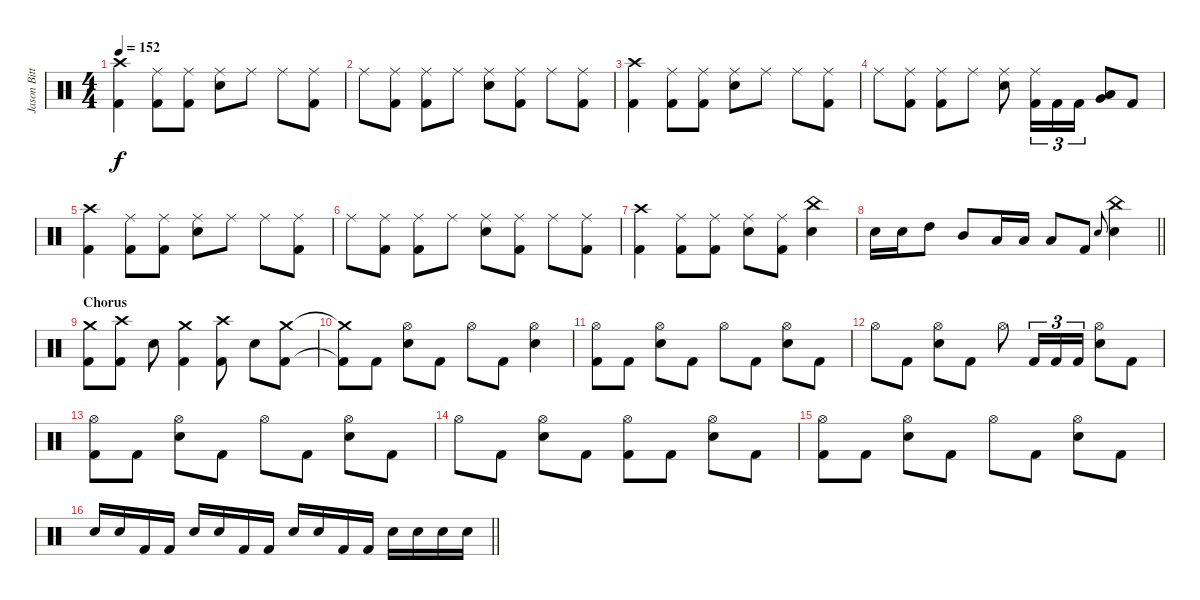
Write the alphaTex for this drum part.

\track ("Jason Bittner" "Jason Bitt") {instrument percussion}
\staff {score}
\articulation defaults
\ts (4 4)
\tempo 152
\clef neutral
\ks c
("Crash high (hit)" "Kick (hit) 2").4{dy f} ("Ride (middle)" "Kick (hit) 2").8 ("Ride (middle)" "Kick (hit) 2").8 ("Ride (middle)" "Electric Snare (hit)").8 "Ride (middle)".8 "Ride (middle)".8 ("Ride (middle)" "Kick (hit) 2").8 |
"Ride (middle)".8 ("Ride (middle)" "Kick (hit) 2").8 ("Ride (middle)" "Kick (hit) 2").8 "Ride (middle)".8 ("Ride (middle)" "Electric Snare (hit)").8 ("Ride (middle)" "Kick (hit) 2").8 "Ride (middle)".8 ("Ride (middle)" "Kick (hit) 2").8 |
("Crash high (hit)" "Kick (hit) 2").4 ("Ride (middle)" "Kick (hit) 2").8 ("Ride (middle)" "Kick (hit) 2").8 ("Ride (middle)" "Electric Snare (hit)").8 "Ride (middle)".8 "Ride (middle)".8 ("Ride (middle)" "Kick (hit) 2").8 |
"Ride (middle)".8 ("Ride (middle)" "Kick (hit) 2").8 ("Ride (middle)" "Kick (hit) 2").8 "Ride (middle)".8 ("Ride (middle)" "Electric Snare (hit)").8 ("Ride (middle)" "Kick (hit) 2").16{tu (3 2)} "Kick (hit) 2".16{tu (3 2)} "Kick (hit) 2".16{tu (3 2)} ("Low Tom (hit)" "Very Low Tom (hit)").8 "Kick (hit) 2".8 |
("Crash high (hit)" "Kick (hit) 2").4 ("Ride (middle)" "Kick (hit) 2").8 ("Ride (middle)" "Kick (hit) 2").8 ("Ride (middle)" "Electric Snare (hit)").8 "Ride (middle)".8 "Ride (middle)".8 ("Ride (middle)" "Kick (hit) 2").8 |
"Ride (middle)".8 ("Ride (middle)" "Kick (hit) 2").8 ("Ride (middle)" "Kick (hit) 2").8 "Ride (middle)".8 ("Ride (middle)" "Electric Snare (hit)").8 ("Ride (middle)" "Kick (hit) 2").8 "Ride (middle)".8 ("Ride (middle)" "Kick (hit) 2").8 |
("Crash high (hit)" "Kick (hit) 2").4 ("Ride (middle)" "Kick (hit) 2").8 ("Ride (middle)" "Kick (hit) 2").8 ("Ride (middle)" "Electric Snare (hit)").8 ("Ride (middle)" "Kick (hit) 2").8 ("China (hit)" "Electric Snare (hit)").4 |
\barLineRight lightlight "Electric Snare (hit)".16 "Electric Snare (hit)".16 "High Tom (hit)".8 "Mid Tom (hit)".8 "Low Tom (hit)".16 "Low Tom (hit)".16 "Low Tom (hit)".8 "Kick (hit) 2".8 "Electric Snare (hit)".8{gr onbeat}
("China (hit)" "Electric Snare (hit)").4 |
\section ("" "Chorus")
("Crash medium (hit)" "Kick (hit) 2").8 ("Crash high (hit)" "Kick (hit) 2").8 "Electric Snare (hit)".8 ("Crash medium (hit)" "Kick (hit) 2").4 ("Crash high (hit)" "Kick (hit) 2").8 "Electric Snare (hit)".8 ("Crash medium (hit)" "Kick (hit) 2").8 |
("Crash medium (hit)"{t} "Kick (hit) 2"{t}).8 "Kick (hit) 2".8 ("Hi-Hat (open)" "Electric Snare (hit)").8 "Kick (hit) 2".8 "Hi-Hat (open)".8 "Kick (hit) 2".8 ("Hi-Hat (open)" "Electric Snare (hit)").4 |
("Hi-Hat (open)" "Kick (hit) 2").8 "Kick (hit) 2".8 ("Hi-Hat (open)" "Electric Snare (hit)").8 "Kick (hit) 2".8 "Hi-Hat (open)".8 "Kick (hit) 2".8 ("Hi-Hat (open)" "Electric Snare (hit)").8 "Kick (hit) 2".8 |
"Hi-Hat (open)".8 "Kick (hit) 2".8 ("Hi-Hat (open)" "Electric Snare (hit)").8 "Kick (hit) 2".8 "Hi-Hat (open)".8 "Kick (hit) 2".16{tu (3 2)} "Kick (hit) 2".16{tu (3 2)} "Kick (hit) 2".16{tu (3 2)} ("Hi-Hat (open)" "Electric Snare (hit)").8 "Kick (hit) 2".8 |
("Hi-Hat (open)" "Kick (hit) 2").8 "Kick (hit) 2".8 ("Hi-Hat (open)" "Electric Snare (hit)").8 "Kick (hit) 2".8 "Hi-Hat (open)".8 "Kick (hit) 2".8 ("Hi-Hat (open)" "Electric Snare (hit)").8 "Kick (hit) 2".8 |
"Hi-Hat (open)".8 "Kick (hit) 2".8 ("Hi-Hat (open)" "Electric Snare (hit)").8 "Kick (hit) 2".8 ("Hi-Hat (open)" "Kick (hit) 2").8 "Kick (hit) 2".8 ("Hi-Hat (open)" "Electric Snare (hit)").8 "Kick (hit) 2".8 |
("Hi-Hat (open)" "Kick (hit) 2").8 "Kick (hit) 2".8 ("Hi-Hat (open)" "Electric Snare (hit)").8 "Kick (hit) 2".8 "Hi-Hat (open)".8 "Kick (hit) 2".8 ("Hi-Hat (open)" "Electric Snare (hit)").8 "Kick (hit) 2".8 |
\barLineRight lightlight "Electric Snare (hit)".16 "Electric Snare (hit)".16 "Kick (hit) 2".16 "Kick (hit) 2".16 "Electric Snare (hit)".16 "Electric Snare (hit)".16 "Kick (hit) 2".16 "Kick (hit) 2".16 "Electric Snare (hit)".16 "Electric Snare (hit)".16 "Kick (hit) 2".16 "Kick (hit) 2".16 "Electric Snare (hit)".16 "Electric Snare (hit)".16 "Electric Snare (hit)".16 "Electric Snare (hit)".16
